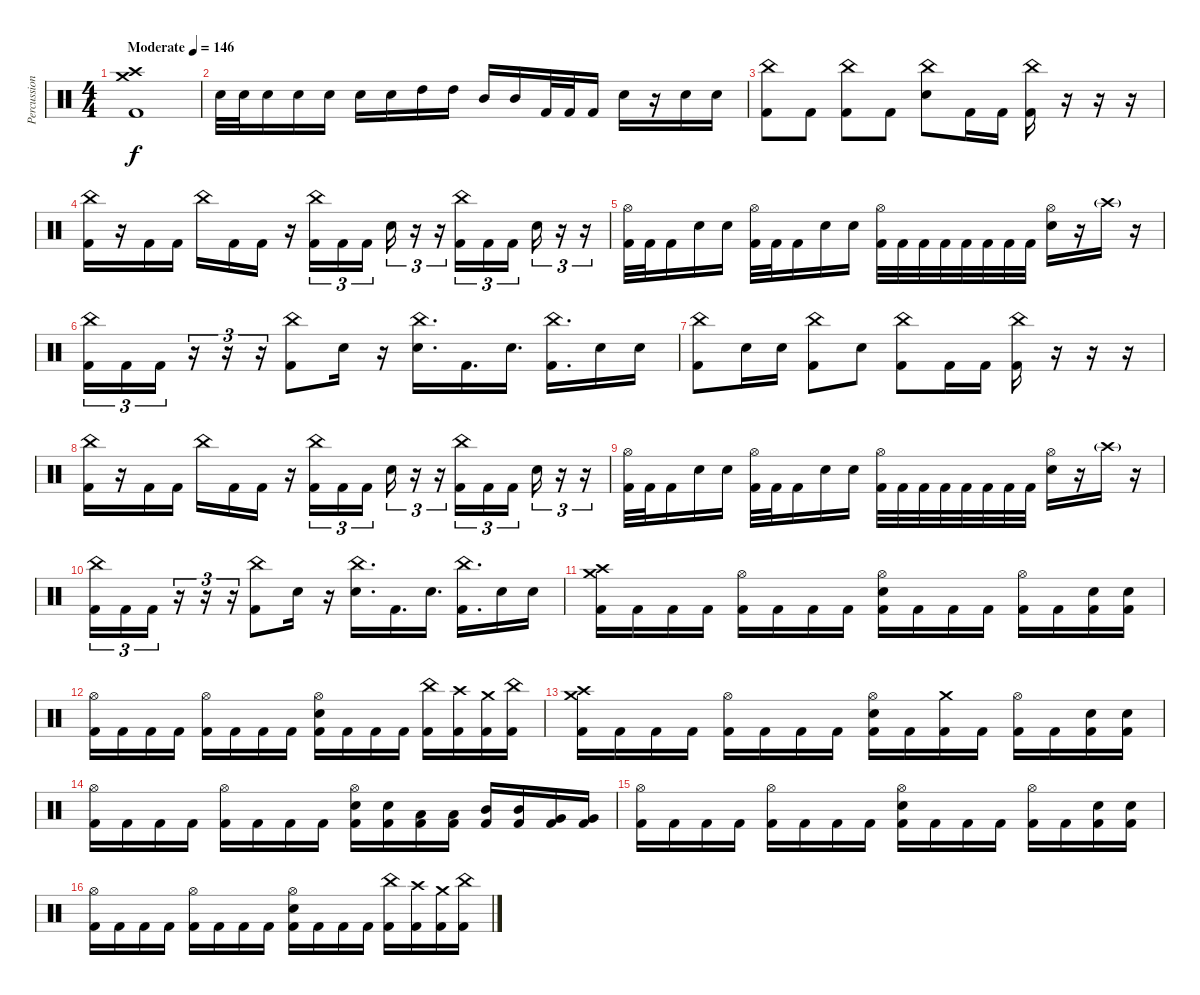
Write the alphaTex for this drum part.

\track ("Percussion" "Percussion") {instrument percussion}
\staff {score}
\articulation defaults
\ts (4 4)
\tempo (146 "Moderate")
\clef neutral
\ks c
("Crash medium (hit)" "Crash high (hit)" "Kick (hit) 2").1{dy f} |
"Electric Snare (hit)".32 "Electric Snare (hit)".32 "Electric Snare (hit)".16 "Electric Snare (hit)".16 "Electric Snare (hit)".16 "Electric Snare (hit)".16 "Electric Snare (hit)".16 "High Tom (hit)".16 "High Tom (hit)".16 "Mid Tom (hit)".16 "Mid Tom (hit)".16 "Kick (hit) 2".32 "Kick (hit) 2".32 "Kick (hit) 2".16 "Electric Snare (hit)".16 r.16 "Electric Snare (hit)".16 "Electric Snare (hit)".16 |
("China (hit)" "Kick (hit) 2").8 "Kick (hit) 2".8 ("China (hit)" "Kick (hit) 2").8 "Kick (hit) 2".8 ("China (hit)" "Electric Snare (hit)").8 "Kick (hit) 2".16 "Kick (hit) 2".16 ("China (hit)" "Kick (hit) 2").16 r.16 r.16 r.16 |
("China (hit)" "Kick (hit) 2").16 r.16 "Kick (hit) 2".16 "Kick (hit) 2".16 "China (hit)".16 "Kick (hit) 2".16 "Kick (hit) 2".16 r.16 ("China (hit)" "Kick (hit) 2").16{tu (3 2)} "Kick (hit) 2".16{tu (3 2)} "Kick (hit) 2".16{tu (3 2) beam splitsecondary} "Electric Snare (hit)".16{tu (3 2)} r.16{tu (3 2)} r.16{tu (3 2)} ("China (hit)" "Kick (hit) 2").16{tu (3 2)} "Kick (hit) 2".16{tu (3 2)} "Kick (hit) 2".16{tu (3 2) beam splitsecondary} "Electric Snare (hit)".16{tu (3 2)} r.16{tu (3 2)} r.16{tu (3 2)} |
("Hi-Hat (open)" "Kick (hit) 2").32 "Kick (hit) 2".32 "Kick (hit) 2".16 "Electric Snare (hit)".16 "Electric Snare (hit)".16 ("Hi-Hat (open)" "Kick (hit) 2").32 "Kick (hit) 2".32 "Kick (hit) 2".16 "Electric Snare (hit)".16 "Electric Snare (hit)".16 ("Hi-Hat (open)" "Kick (hit) 2").32 "Kick (hit) 2".32 "Kick (hit) 2".32 "Kick (hit) 2".32 "Kick (hit) 2".32 "Kick (hit) 2".32 "Kick (hit) 2".32 "Kick (hit) 2".32 ("Hi-Hat (open)" "Electric Snare (hit)").16 r.16 "Crash high (hit)"{g}.16 r.16 |
("China (hit)" "Kick (hit) 2").16{tu (3 2)} "Kick (hit) 2".16{tu (3 2)} "Kick (hit) 2".16{tu (3 2)} r.16{tu (3 2)} r.16{tu (3 2)} r.16{tu (3 2)} ("China (hit)" "Kick (hit) 2").8 "Electric Snare (hit)".16 r.16 ("China (hit)" "Electric Snare (hit)").16{d} "Kick (hit) 2".16{d} "Electric Snare (hit)".16{d} ("China (hit)" "Kick (hit) 2").16{d} "Electric Snare (hit)".16 "Electric Snare (hit)".16 |
("China (hit)" "Kick (hit) 2").8 "Electric Snare (hit)".16 "Electric Snare (hit)".16 ("China (hit)" "Kick (hit) 2").8 "Electric Snare (hit)".8 ("China (hit)" "Kick (hit) 2").8 "Kick (hit) 2".16 "Kick (hit) 2".16 ("China (hit)" "Kick (hit) 2").16 r.16 r.16 r.16 |
("China (hit)" "Kick (hit) 2").16 r.16 "Kick (hit) 2".16 "Kick (hit) 2".16 "China (hit)".16 "Kick (hit) 2".16 "Kick (hit) 2".16 r.16 ("China (hit)" "Kick (hit) 2").16{tu (3 2)} "Kick (hit) 2".16{tu (3 2)} "Kick (hit) 2".16{tu (3 2) beam splitsecondary} "Electric Snare (hit)".16{tu (3 2)} r.16{tu (3 2)} r.16{tu (3 2)} ("China (hit)" "Kick (hit) 2").16{tu (3 2)} "Kick (hit) 2".16{tu (3 2)} "Kick (hit) 2".16{tu (3 2) beam splitsecondary} "Electric Snare (hit)".16{tu (3 2)} r.16{tu (3 2)} r.16{tu (3 2)} |
("Hi-Hat (open)" "Kick (hit) 2").32 "Kick (hit) 2".32 "Kick (hit) 2".16 "Electric Snare (hit)".16 "Electric Snare (hit)".16 ("Hi-Hat (open)" "Kick (hit) 2").32 "Kick (hit) 2".32 "Kick (hit) 2".16 "Electric Snare (hit)".16 "Electric Snare (hit)".16 ("Hi-Hat (open)" "Kick (hit) 2").32 "Kick (hit) 2".32 "Kick (hit) 2".32 "Kick (hit) 2".32 "Kick (hit) 2".32 "Kick (hit) 2".32 "Kick (hit) 2".32 "Kick (hit) 2".32 ("Hi-Hat (open)" "Electric Snare (hit)").16 r.16 "Crash high (hit)"{g}.16 r.16 |
("China (hit)" "Kick (hit) 2").16{tu (3 2)} "Kick (hit) 2".16{tu (3 2)} "Kick (hit) 2".16{tu (3 2)} r.16{tu (3 2)} r.16{tu (3 2)} r.16{tu (3 2)} ("China (hit)" "Kick (hit) 2").8 "Electric Snare (hit)".16 r.16 ("China (hit)" "Electric Snare (hit)").16{d} "Kick (hit) 2".16{d} "Electric Snare (hit)".16{d} ("China (hit)" "Kick (hit) 2").16{d} "Electric Snare (hit)".16 "Electric Snare (hit)".16 |
("Crash medium (hit)" "Crash high (hit)" "Kick (hit) 2").16 "Kick (hit) 2".16 "Kick (hit) 2".16 "Kick (hit) 2".16 ("Hi-Hat (open)" "Kick (hit) 2").16 "Kick (hit) 2".16 "Kick (hit) 2".16 "Kick (hit) 2".16 ("Hi-Hat (open)" "Electric Snare (hit)" "Kick (hit) 2").16 "Kick (hit) 2".16 "Kick (hit) 2".16 "Kick (hit) 2".16 ("Hi-Hat (open)" "Kick (hit) 2").16 "Kick (hit) 2".16 ("Electric Snare (hit)" "Kick (hit) 2").16 ("Electric Snare (hit)" "Kick (hit) 2").16 |
("Hi-Hat (open)" "Kick (hit) 2").16 "Kick (hit) 2".16 "Kick (hit) 2".16 "Kick (hit) 2".16 ("Hi-Hat (open)" "Kick (hit) 2").16 "Kick (hit) 2".16 "Kick (hit) 2".16 "Kick (hit) 2".16 ("Hi-Hat (open)" "Electric Snare (hit)" "Kick (hit) 2").16 "Kick (hit) 2".16 "Kick (hit) 2".16 "Kick (hit) 2".16 ("China (hit)" "Kick (hit) 2").16 ("Crash high (hit)" "Kick (hit) 2").16 ("Crash medium (hit)" "Kick (hit) 2").16 ("China (hit)" "Kick (hit) 2").16 |
("Crash high (hit)" "Crash medium (hit)" "Kick (hit) 2").16 "Kick (hit) 2".16 "Kick (hit) 2".16 "Kick (hit) 2".16 ("Hi-Hat (open)" "Kick (hit) 2").16 "Kick (hit) 2".16 "Kick (hit) 2".16 "Kick (hit) 2".16 ("Hi-Hat (open)" "Electric Snare (hit)" "Kick (hit) 2").16 "Kick (hit) 2".16 ("Crash medium (hit)" "Kick (hit) 2").16 "Kick (hit) 2".16 ("Hi-Hat (open)" "Kick (hit) 2").16 "Kick (hit) 2".16 ("Electric Snare (hit)" "Kick (hit) 2").16 ("Electric Snare (hit)" "Kick (hit) 2").16 |
("Hi-Hat (open)" "Kick (hit) 2").16 "Kick (hit) 2".16 "Kick (hit) 2".16 "Kick (hit) 2".16 ("Hi-Hat (open)" "Kick (hit) 2").16 "Kick (hit) 2".16 "Kick (hit) 2".16 "Kick (hit) 2".16 ("Hi-Hat (open)" "Electric Snare (hit)" "Kick (hit) 2").16 ("Electric Snare (hit)" "Kick (hit) 2").16 ("Low Tom (hit)" "Kick (hit) 2").16 ("Low Tom (hit)" "Kick (hit) 2").16 ("Mid Tom (hit)" "Kick (hit) 2").16 ("Mid Tom (hit)" "Kick (hit) 2").16 ("Very Low Tom (hit)" "Kick (hit) 2").16 ("Very Low Tom (hit)" "Kick (hit) 2").16 |
("Hi-Hat (open)" "Kick (hit) 2").16 "Kick (hit) 2".16 "Kick (hit) 2".16 "Kick (hit) 2".16 ("Hi-Hat (open)" "Kick (hit) 2").16 "Kick (hit) 2".16 "Kick (hit) 2".16 "Kick (hit) 2".16 ("Hi-Hat (open)" "Electric Snare (hit)" "Kick (hit) 2").16 "Kick (hit) 2".16 "Kick (hit) 2".16 "Kick (hit) 2".16 ("Hi-Hat (open)" "Kick (hit) 2").16 "Kick (hit) 2".16 ("Electric Snare (hit)" "Kick (hit) 2").16 ("Electric Snare (hit)" "Kick (hit) 2").16 |
("Hi-Hat (open)" "Kick (hit) 2").16 "Kick (hit) 2".16 "Kick (hit) 2".16 "Kick (hit) 2".16 ("Hi-Hat (open)" "Kick (hit) 2").16 "Kick (hit) 2".16 "Kick (hit) 2".16 "Kick (hit) 2".16 ("Hi-Hat (open)" "Electric Snare (hit)" "Kick (hit) 2").16 "Kick (hit) 2".16 "Kick (hit) 2".16 "Kick (hit) 2".16 ("China (hit)" "Kick (hit) 2").16 ("Crash high (hit)" "Kick (hit) 2").16 ("Crash medium (hit)" "Kick (hit) 2").16 ("China (hit)" "Kick (hit) 2").16
